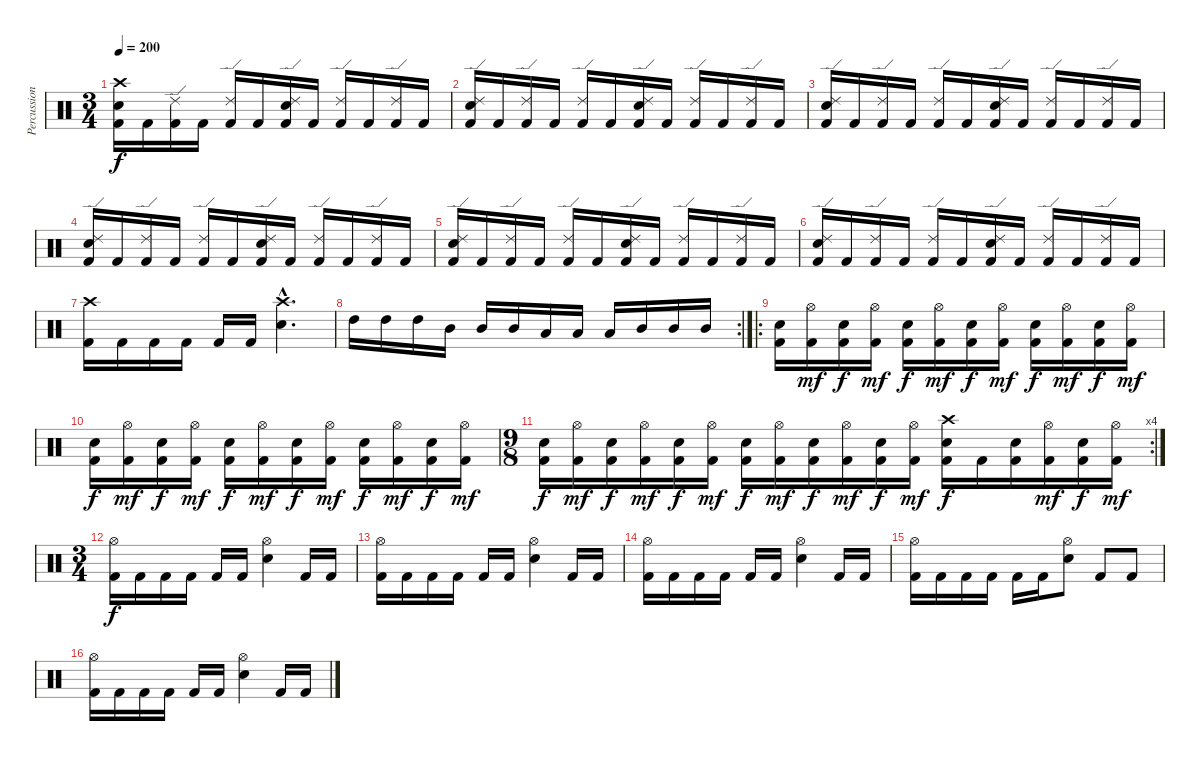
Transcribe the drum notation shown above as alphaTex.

\track ("Percussion" "Percussion") {instrument percussion}
\staff {score}
\articulation defaults
\ts (3 4)
\tempo 200
\clef neutral
\ks c
("Crash high (hit)" "Electric Snare (hit)" "Kick (hit) 2").16{dy f} "Kick (hit) 2".16 ("Ride (edge) 2" "Kick (hit) 2").16 "Kick (hit) 2".16 ("Ride (edge) 2" "Kick (hit) 2").16 "Kick (hit) 2".16 ("Ride (edge) 2" "Electric Snare (hit)" "Kick (hit) 2").16 "Kick (hit) 2".16 ("Ride (edge) 2" "Kick (hit) 2").16 "Kick (hit) 2".16 ("Ride (edge) 2" "Kick (hit) 2").16 "Kick (hit) 2".16 |
("Ride (edge) 2" "Electric Snare (hit)" "Kick (hit) 2").16 "Kick (hit) 2".16 ("Ride (edge) 2" "Kick (hit) 2").16 "Kick (hit) 2".16 ("Ride (edge) 2" "Kick (hit) 2").16 "Kick (hit) 2".16 ("Ride (edge) 2" "Electric Snare (hit)" "Kick (hit) 2").16 "Kick (hit) 2".16 ("Ride (edge) 2" "Kick (hit) 2").16 "Kick (hit) 2".16 ("Ride (edge) 2" "Kick (hit) 2").16 "Kick (hit) 2".16 |
("Ride (edge) 2" "Electric Snare (hit)" "Kick (hit) 2").16 "Kick (hit) 2".16 ("Ride (edge) 2" "Kick (hit) 2").16 "Kick (hit) 2".16 ("Ride (edge) 2" "Kick (hit) 2").16 "Kick (hit) 2".16 ("Ride (edge) 2" "Electric Snare (hit)" "Kick (hit) 2").16 "Kick (hit) 2".16 ("Ride (edge) 2" "Kick (hit) 2").16 "Kick (hit) 2".16 ("Ride (edge) 2" "Kick (hit) 2").16 "Kick (hit) 2".16 |
("Ride (edge) 2" "Electric Snare (hit)" "Kick (hit) 2").16 "Kick (hit) 2".16 ("Ride (edge) 2" "Kick (hit) 2").16 "Kick (hit) 2".16 ("Ride (edge) 2" "Kick (hit) 2").16 "Kick (hit) 2".16 ("Ride (edge) 2" "Electric Snare (hit)" "Kick (hit) 2").16 "Kick (hit) 2".16 ("Ride (edge) 2" "Kick (hit) 2").16 "Kick (hit) 2".16 ("Ride (edge) 2" "Kick (hit) 2").16 "Kick (hit) 2".16 |
("Ride (edge) 2" "Electric Snare (hit)" "Kick (hit) 2").16 "Kick (hit) 2".16 ("Ride (edge) 2" "Kick (hit) 2").16 "Kick (hit) 2".16 ("Ride (edge) 2" "Kick (hit) 2").16 "Kick (hit) 2".16 ("Ride (edge) 2" "Electric Snare (hit)" "Kick (hit) 2").16 "Kick (hit) 2".16 ("Ride (edge) 2" "Kick (hit) 2").16 "Kick (hit) 2".16 ("Ride (edge) 2" "Kick (hit) 2").16 "Kick (hit) 2".16 |
("Ride (edge) 2" "Electric Snare (hit)" "Kick (hit) 2").16 "Kick (hit) 2".16 ("Ride (edge) 2" "Kick (hit) 2").16 "Kick (hit) 2".16 ("Ride (edge) 2" "Kick (hit) 2").16 "Kick (hit) 2".16 ("Ride (edge) 2" "Electric Snare (hit)" "Kick (hit) 2").16 "Kick (hit) 2".16 ("Ride (edge) 2" "Kick (hit) 2").16 "Kick (hit) 2".16 ("Ride (edge) 2" "Kick (hit) 2").16 "Kick (hit) 2".16 |
("Crash high (hit)" "Kick (hit) 2").16 "Kick (hit) 2".16 "Kick (hit) 2".16 "Kick (hit) 2".16 "Kick (hit) 2".16 "Kick (hit) 2".16 ("Crash high (hit)"{hac} "Electric Snare (hit)"{hac}).4{d} |
\rc 2 "High Tom (hit)".16 "High Tom (hit)".16 "High Tom (hit)".16 "Mid Tom (hit)".16 "Mid Tom (hit)".16 "Mid Tom (hit)".16 "Low Tom (hit)".16 "Low Tom (hit)".16 "Low Tom (hit)".16 "Mid Tom (hit)".16 "Mid Tom (hit)".16 "Mid Tom (hit)".16
|
\ro
("Electric Snare (hit)" "Kick (hit) 2").16 ("Hi-Hat (open)" "Kick (hit) 2").16{dy mf} ("Electric Snare (hit)" "Kick (hit) 2").16{dy f} ("Hi-Hat (open)" "Kick (hit) 2").16{dy mf} ("Electric Snare (hit)" "Kick (hit) 2").16{dy f} ("Hi-Hat (open)" "Kick (hit) 2").16{dy mf} ("Electric Snare (hit)" "Kick (hit) 2").16{dy f} ("Hi-Hat (open)" "Kick (hit) 2").16{dy mf} ("Electric Snare (hit)" "Kick (hit) 2").16{dy f} ("Hi-Hat (open)" "Kick (hit) 2").16{dy mf} ("Electric Snare (hit)" "Kick (hit) 2").16{dy f} ("Hi-Hat (open)" "Kick (hit) 2").16{dy mf} |
("Electric Snare (hit)" "Kick (hit) 2").16{dy f} ("Hi-Hat (open)" "Kick (hit) 2").16{dy mf} ("Electric Snare (hit)" "Kick (hit) 2").16{dy f} ("Hi-Hat (open)" "Kick (hit) 2").16{dy mf} ("Electric Snare (hit)" "Kick (hit) 2").16{dy f} ("Hi-Hat (open)" "Kick (hit) 2").16{dy mf} ("Electric Snare (hit)" "Kick (hit) 2").16{dy f} ("Hi-Hat (open)" "Kick (hit) 2").16{dy mf} ("Electric Snare (hit)" "Kick (hit) 2").16{dy f} ("Hi-Hat (open)" "Kick (hit) 2").16{dy mf} ("Electric Snare (hit)" "Kick (hit) 2").16{dy f} ("Hi-Hat (open)" "Kick (hit) 2").16{dy mf} |
\rc 4
\ts (9 8)
("Electric Snare (hit)" "Kick (hit) 2").16{dy f} ("Hi-Hat (open)" "Kick (hit) 2").16{dy mf} ("Electric Snare (hit)" "Kick (hit) 2").16{dy f} ("Hi-Hat (open)" "Kick (hit) 2").16{dy mf} ("Electric Snare (hit)" "Kick (hit) 2").16{dy f} ("Hi-Hat (open)" "Kick (hit) 2").16{dy mf} ("Electric Snare (hit)" "Kick (hit) 2").16{dy f} ("Hi-Hat (open)" "Kick (hit) 2").16{dy mf} ("Electric Snare (hit)" "Kick (hit) 2").16{dy f} ("Hi-Hat (open)" "Kick (hit) 2").16{dy mf} ("Electric Snare (hit)" "Kick (hit) 2").16{dy f} ("Hi-Hat (open)" "Kick (hit) 2").16{dy mf} ("Crash high (hit)" "Electric Snare (hit)" "Kick (hit) 2").16{dy f} "Kick (hit) 2".16 ("Electric Snare (hit)" "Kick (hit) 2").16 ("Hi-Hat (open)" "Kick (hit) 2").16{dy mf} ("Electric Snare (hit)" "Kick (hit) 2").16{dy f} ("Hi-Hat (open)" "Kick (hit) 2").16{dy mf} |
\ts (3 4)
("Hi-Hat (open)" "Kick (hit) 2").16{dy f} "Kick (hit) 2".16 "Kick (hit) 2".16 "Kick (hit) 2".16 "Kick (hit) 2".16 "Kick (hit) 2".16 ("Hi-Hat (open)" "Electric Snare (hit)").4 "Kick (hit) 2".16 "Kick (hit) 2".16 |
("Hi-Hat (open)" "Kick (hit) 2").16 "Kick (hit) 2".16 "Kick (hit) 2".16 "Kick (hit) 2".16 "Kick (hit) 2".16 "Kick (hit) 2".16 ("Hi-Hat (open)" "Electric Snare (hit)").4 "Kick (hit) 2".16 "Kick (hit) 2".16 |
("Hi-Hat (open)" "Kick (hit) 2").16 "Kick (hit) 2".16 "Kick (hit) 2".16 "Kick (hit) 2".16 "Kick (hit) 2".16 "Kick (hit) 2".16 ("Hi-Hat (open)" "Electric Snare (hit)").4 "Kick (hit) 2".16 "Kick (hit) 2".16 |
("Hi-Hat (open)" "Kick (hit) 2").16 "Kick (hit) 2".16 "Kick (hit) 2".16 "Kick (hit) 2".16 "Kick (hit) 2".16 "Kick (hit) 2".16 ("Hi-Hat (open)" "Electric Snare (hit)").8 "Kick (hit) 2".8 "Kick (hit) 2".8 |
("Hi-Hat (open)" "Kick (hit) 2").16 "Kick (hit) 2".16 "Kick (hit) 2".16 "Kick (hit) 2".16 "Kick (hit) 2".16 "Kick (hit) 2".16 ("Hi-Hat (open)" "Electric Snare (hit)").4 "Kick (hit) 2".16 "Kick (hit) 2".16
